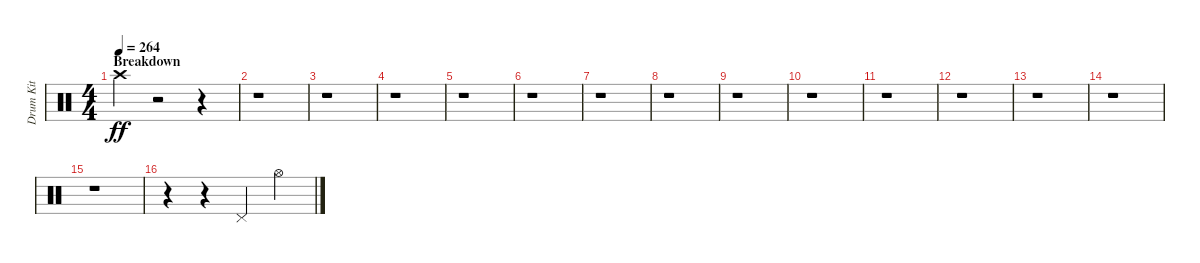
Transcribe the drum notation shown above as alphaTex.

\track ("Drum Kit" "Drum Kit") {instrument percussion}
\staff {score}
\articulation defaults
\ts (4 4)
\section ("" "Breakdown")
\tempo 264
\clef neutral
\ks c "Crash high (hit)".4{dy ff}
r.2 r.4 |
r.1 |
r.1 |
r.1 |
r.1 |
r.1 |
r.1 |
r.1 |
r.1 |
r.1 |
r.1 |
r.1 |
r.1 |
r.1 |
r.1 |
r.4 r.4 "Pedal Hi-Hat (hit)".4 "Hi-Hat (open)".4
